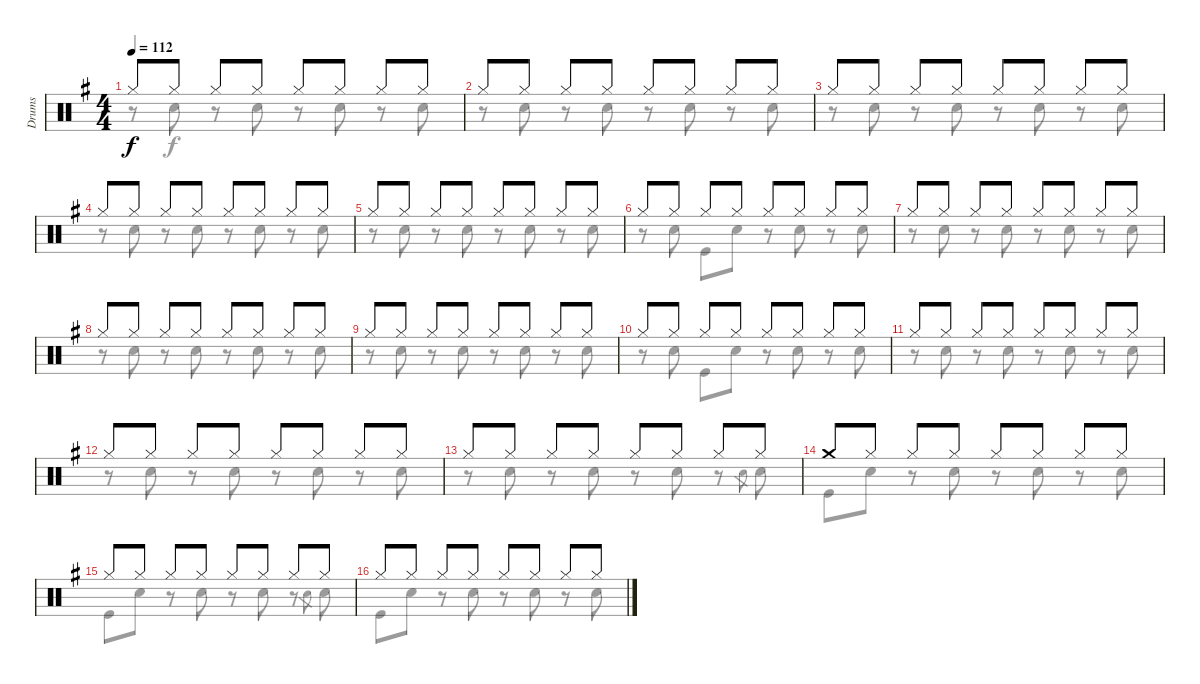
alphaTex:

\track ("Drums" "Drums") {instrument percussion}
\staff {score}
\articulation defaults
\voice
\ts (4 4)
\tempo 112
\clef neutral
\ks g "Hi-Hat (closed)".8{dy f} "Hi-Hat (closed)".8 "Hi-Hat (closed)".8 "Hi-Hat (closed)".8 "Hi-Hat (closed)".8 "Hi-Hat (closed)".8 "Hi-Hat (closed)".8 "Hi-Hat (closed)".8
|
"Hi-Hat (closed)".8 "Hi-Hat (closed)".8 "Hi-Hat (closed)".8 "Hi-Hat (closed)".8 "Hi-Hat (closed)".8 "Hi-Hat (closed)".8 "Hi-Hat (closed)".8 "Hi-Hat (closed)".8 |
"Hi-Hat (closed)".8 "Hi-Hat (closed)".8 "Hi-Hat (closed)".8 "Hi-Hat (closed)".8 "Hi-Hat (closed)".8 "Hi-Hat (closed)".8 "Hi-Hat (closed)".8 "Hi-Hat (closed)".8 |
"Hi-Hat (closed)".8 "Hi-Hat (closed)".8 "Hi-Hat (closed)".8 "Hi-Hat (closed)".8 "Hi-Hat (closed)".8 "Hi-Hat (closed)".8 "Hi-Hat (closed)".8 "Hi-Hat (closed)".8 |
"Hi-Hat (closed)".8 "Hi-Hat (closed)".8 "Hi-Hat (closed)".8 "Hi-Hat (closed)".8 "Hi-Hat (closed)".8 "Hi-Hat (closed)".8 "Hi-Hat (closed)".8 "Hi-Hat (closed)".8 |
"Hi-Hat (closed)".8 "Hi-Hat (closed)".8 "Hi-Hat (closed)".8 "Hi-Hat (closed)".8 "Hi-Hat (closed)".8 "Hi-Hat (closed)".8 "Hi-Hat (closed)".8 "Hi-Hat (closed)".8 |
"Hi-Hat (closed)".8 "Hi-Hat (closed)".8 "Hi-Hat (closed)".8 "Hi-Hat (closed)".8 "Hi-Hat (closed)".8 "Hi-Hat (closed)".8 "Hi-Hat (closed)".8 "Hi-Hat (closed)".8 |
"Hi-Hat (closed)".8 "Hi-Hat (closed)".8 "Hi-Hat (closed)".8 "Hi-Hat (closed)".8 "Hi-Hat (closed)".8 "Hi-Hat (closed)".8 "Hi-Hat (closed)".8 "Hi-Hat (closed)".8 |
"Hi-Hat (closed)".8 "Hi-Hat (closed)".8 "Hi-Hat (closed)".8 "Hi-Hat (closed)".8 "Hi-Hat (closed)".8 "Hi-Hat (closed)".8 "Hi-Hat (closed)".8 "Hi-Hat (closed)".8 |
"Hi-Hat (closed)".8 "Hi-Hat (closed)".8 "Hi-Hat (closed)".8 "Hi-Hat (closed)".8 "Hi-Hat (closed)".8 "Hi-Hat (closed)".8 "Hi-Hat (closed)".8 "Hi-Hat (closed)".8 |
"Hi-Hat (closed)".8 "Hi-Hat (closed)".8 "Hi-Hat (closed)".8 "Hi-Hat (closed)".8 "Hi-Hat (closed)".8 "Hi-Hat (closed)".8 "Hi-Hat (closed)".8 "Hi-Hat (closed)".8 |
"Hi-Hat (closed)".8 "Hi-Hat (closed)".8 "Hi-Hat (closed)".8 "Hi-Hat (closed)".8 "Hi-Hat (closed)".8 "Hi-Hat (closed)".8 "Hi-Hat (closed)".8 "Hi-Hat (closed)".8 |
"Hi-Hat (closed)".8 "Hi-Hat (closed)".8 "Hi-Hat (closed)".8 "Hi-Hat (closed)".8 "Hi-Hat (closed)".8 "Hi-Hat (closed)".8 "Hi-Hat (closed)".8 "Hi-Hat (closed)".8 |
"Crash medium (hit)".8 "Hi-Hat (closed)".8 "Hi-Hat (closed)".8 "Hi-Hat (closed)".8 "Hi-Hat (closed)".8 "Hi-Hat (closed)".8 "Hi-Hat (closed)".8 "Hi-Hat (closed)".8 |
"Hi-Hat (closed)".8 "Hi-Hat (closed)".8 "Hi-Hat (closed)".8 "Hi-Hat (closed)".8 "Hi-Hat (closed)".8 "Hi-Hat (closed)".8 "Hi-Hat (closed)".8 "Hi-Hat (closed)".8 |
"Hi-Hat (closed)".8 "Hi-Hat (closed)".8 "Hi-Hat (closed)".8 "Hi-Hat (closed)".8 "Hi-Hat (closed)".8 "Hi-Hat (closed)".8 "Hi-Hat (closed)".8 "Hi-Hat (closed)".8
\voice
\clef neutral
\ottava regular
\simile none
\ks g
r.8{dy f} "Snare (hit) 2".8 r.8 "Snare (hit) 2".8 r.8 "Snare (hit) 2".8 r.8 "Snare (hit) 2".8 |
r.8 "Snare (hit) 2".8 r.8 "Snare (hit) 2".8 r.8 "Snare (hit) 2".8 r.8 "Snare (hit) 2".8 |
r.8 "Snare (hit) 2".8 r.8 "Snare (hit) 2".8 r.8 "Snare (hit) 2".8 r.8 "Snare (hit) 2".8 |
r.8 "Snare (hit) 2".8 r.8 "Snare (hit) 2".8 r.8 "Snare (hit) 2".8 r.8 "Snare (hit) 2".8 |
r.8 "Snare (hit) 2".8 r.8 "Snare (hit) 2".8 r.8 "Snare (hit) 2".8 r.8 "Snare (hit) 2".8 |
r.8 "Snare (hit) 2".8 "Kick (hit)".8 "Snare (hit) 2".8 r.8 "Snare (hit) 2".8 r.8 "Snare (hit) 2".8 |
r.8 "Snare (hit) 2".8 r.8 "Snare (hit) 2".8 r.8 "Snare (hit) 2".8 r.8 "Snare (hit) 2".8 |
r.8 "Snare (hit) 2".8 r.8 "Snare (hit) 2".8 r.8 "Snare (hit) 2".8 r.8 "Snare (hit) 2".8 |
r.8 "Snare (hit) 2".8 r.8 "Snare (hit) 2".8 r.8 "Snare (hit) 2".8 r.8 "Snare (hit) 2".8 |
r.8 "Snare (hit) 2".8 "Kick (hit)".8 "Snare (hit) 2".8 r.8 "Snare (hit) 2".8 r.8 "Snare (hit) 2".8 |
r.8 "Snare (hit) 2".8 r.8 "Snare (hit) 2".8 r.8 "Snare (hit) 2".8 r.8 "Snare (hit) 2".8 |
r.8 "Snare (hit) 2".8 r.8 "Snare (hit) 2".8 r.8 "Snare (hit) 2".8 r.8 "Snare (hit) 2".8 |
r.8 "Snare (hit) 2".8 r.8 "Snare (hit) 2".8 r.8 "Snare (hit) 2".8 r.8 "Snare (hit) 2".8{gr} "Snare (hit) 2".8 |
"Kick (hit)".8 "Snare (hit) 2".8 r.8 "Snare (hit) 2".8 r.8 "Snare (hit) 2".8 r.8 "Snare (hit) 2".8 |
"Kick (hit)".8 "Snare (hit) 2".8 r.8 "Snare (hit) 2".8 r.8 "Snare (hit) 2".8 r.8 "Snare (hit) 2".8{gr} "Snare (hit) 2".8 |
"Kick (hit)".8 "Snare (hit) 2".8 r.8 "Snare (hit) 2".8 r.8 "Snare (hit) 2".8 r.8 "Snare (hit) 2".8
